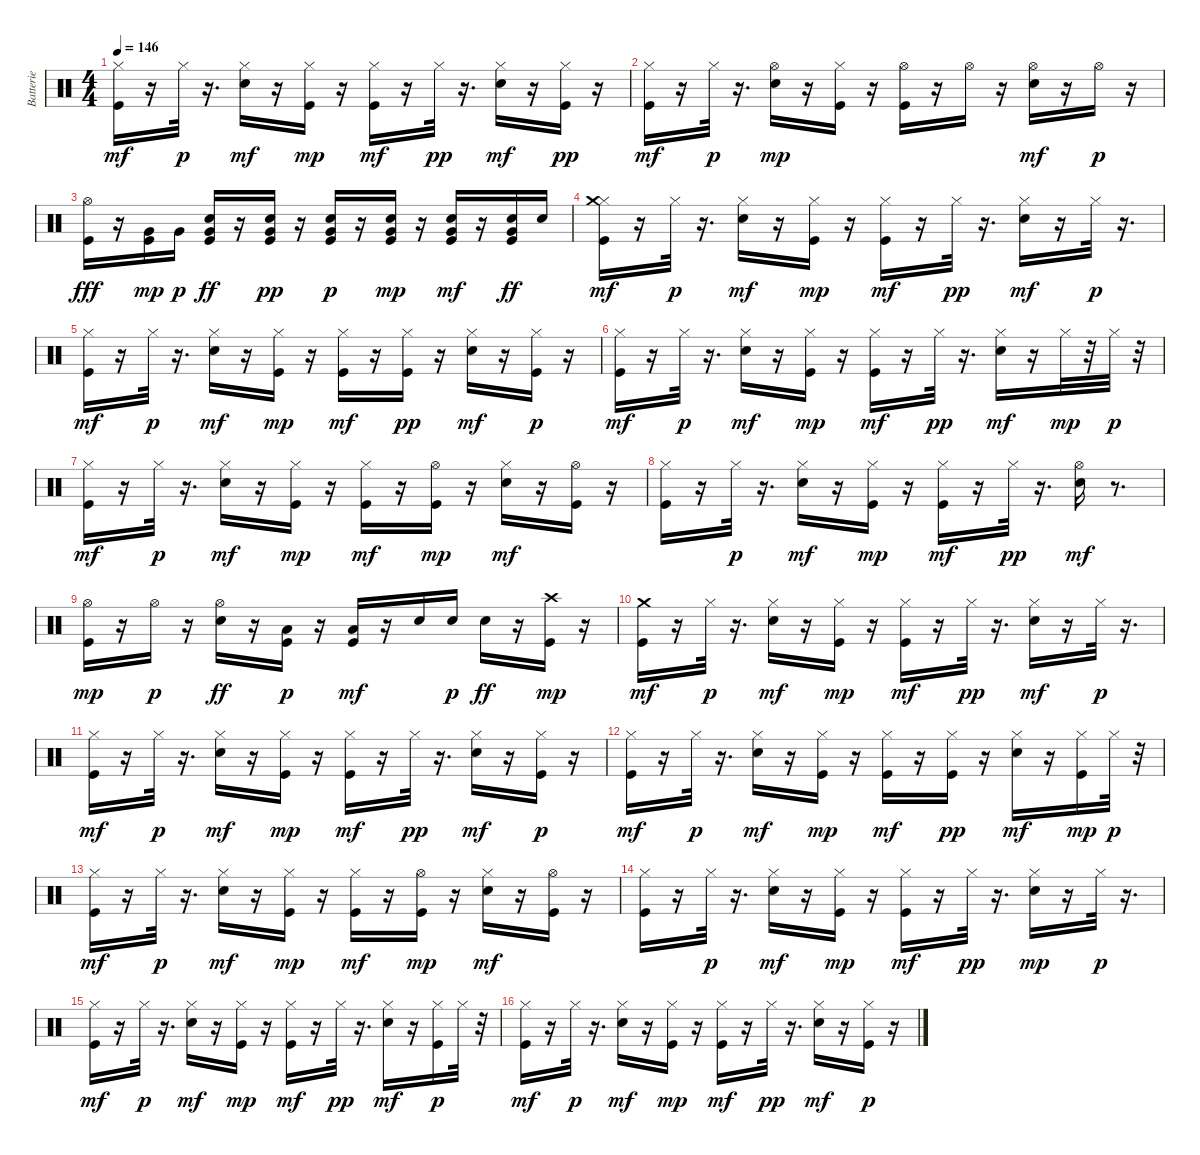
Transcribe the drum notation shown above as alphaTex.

\track ("Batterie" "Batterie") {instrument percussion}
\staff {score}
\articulation defaults
\ts (4 4)
\tempo 146
\clef neutral
\ks c
("Kick (hit)" "Hi-Hat (closed)").16{dy mf} r.16 "Hi-Hat (closed)".32{dy p} r.16{d} ("Electric Snare (hit)" "Hi-Hat (closed)").16{dy mf} r.16 ("Kick (hit)" "Hi-Hat (closed)").16{dy mp} r.16 ("Kick (hit)" "Hi-Hat (closed)").16{dy mf} r.16 "Hi-Hat (closed)".32{dy pp} r.16{d} ("Electric Snare (hit)" "Hi-Hat (closed)").16{dy mf} r.16 ("Kick (hit)" "Hi-Hat (closed)").16{dy pp} r.16 |
("Kick (hit)" "Hi-Hat (closed)").16{dy mf} r.16 "Hi-Hat (closed)".32{dy p} r.16{d} ("Electric Snare (hit)" "Hi-Hat (open)").16{dy mp} r.16 ("Kick (hit)" "Hi-Hat (closed)").16 r.16 ("Kick (hit)" "Hi-Hat (open)").16 r.16 "Hi-Hat (open)".16 r.16 ("Electric Snare (hit)" "Hi-Hat (open)").16{dy mf} r.16 "Hi-Hat (open)".16{dy p} r.16 |
("Kick (hit)" "Hi-Hat (open)").16{dy fff} r.16 ("Kick (hit)" "Very Low Tom (hit)").16{dy mp} "Very Low Tom (hit)".16{dy p} ("Kick (hit)" "Electric Snare (hit)" "Very Low Tom (hit)").16{dy ff} r.16 ("Kick (hit)" "Electric Snare (hit)" "Very Low Tom (hit)").16{dy pp} r.16 ("Kick (hit)" "Electric Snare (hit)" "Very Low Tom (hit)").16{dy p} r.16 ("Kick (hit)" "Electric Snare (hit)" "Very Low Tom (hit)").16{dy mp} r.16 ("Kick (hit)" "Electric Snare (hit)" "Very Low Tom (hit)").16{dy mf} r.16 ("Kick (hit)" "Electric Snare (hit)" "Very Low Tom (hit)").16{dy ff} "Electric Snare (hit)".16 |
("Kick (hit)" "Hi-Hat (closed)" "Crash medium (hit)").16{dy mf} r.16 "Hi-Hat (closed)".32{dy p} r.16{d} ("Electric Snare (hit)" "Hi-Hat (closed)").16{dy mf} r.16 ("Kick (hit)" "Hi-Hat (closed)").16{dy mp} r.16 ("Kick (hit)" "Hi-Hat (closed)").16{dy mf} r.16 "Hi-Hat (closed)".32{dy pp} r.16{d} ("Electric Snare (hit)" "Hi-Hat (closed)").16{dy mf} r.16 "Hi-Hat (closed)".32{dy p} r.16{d} |
("Kick (hit)" "Hi-Hat (closed)").16{dy mf} r.16 "Hi-Hat (closed)".32{dy p} r.16{d} ("Electric Snare (hit)" "Hi-Hat (closed)").16{dy mf} r.16 ("Kick (hit)" "Hi-Hat (closed)").16{dy mp} r.16 ("Kick (hit)" "Hi-Hat (closed)").16{dy mf} r.16 ("Kick (hit)" "Hi-Hat (closed)").16{dy pp} r.16 ("Electric Snare (hit)" "Hi-Hat (closed)").16{dy mf} r.16 ("Kick (hit)" "Hi-Hat (closed)").16{dy p} r.16 |
("Kick (hit)" "Hi-Hat (closed)").16{dy mf} r.16 "Hi-Hat (closed)".32{dy p} r.16{d} ("Electric Snare (hit)" "Hi-Hat (closed)").16{dy mf} r.16 ("Kick (hit)" "Hi-Hat (closed)").16{dy mp} r.16 ("Kick (hit)" "Hi-Hat (closed)").16{dy mf} r.16 "Hi-Hat (closed)".32{dy pp} r.16{d} ("Electric Snare (hit)" "Hi-Hat (closed)").16{dy mf} r.16 "Hi-Hat (closed)".32{dy mp} r.32 "Hi-Hat (closed)".32{dy p} r.32 |
("Kick (hit)" "Hi-Hat (closed)").16{dy mf} r.16 "Hi-Hat (closed)".32{dy p} r.16{d} ("Electric Snare (hit)" "Hi-Hat (closed)").16{dy mf} r.16 ("Kick (hit)" "Hi-Hat (closed)").16{dy mp} r.16 ("Kick (hit)" "Hi-Hat (closed)").16{dy mf} r.16 ("Kick (hit)" "Hi-Hat (open)").16{dy mp} r.16 ("Electric Snare (hit)" "Hi-Hat (closed)").16{dy mf} r.16 ("Kick (hit)" "Hi-Hat (open)").16 r.16 |
("Kick (hit)" "Hi-Hat (closed)").16 r.16 "Hi-Hat (closed)".32{dy p} r.16{d} ("Electric Snare (hit)" "Hi-Hat (closed)").16{dy mf} r.16 ("Kick (hit)" "Hi-Hat (closed)").16{dy mp} r.16 ("Kick (hit)" "Hi-Hat (closed)").16{dy mf} r.16 "Hi-Hat (closed)".32{dy pp} r.16{d} ("Electric Snare (hit)" "Hi-Hat (open)").16{dy mf} r.8{d} |
("Kick (hit)" "Hi-Hat (open)").16{dy mp} r.16 "Hi-Hat (open)".16{dy p} r.16 ("Electric Snare (hit)" "Hi-Hat (open)").16{dy ff} r.16 ("Kick (hit)" "Low Tom (hit)").16{dy p} r.16 ("Kick (hit)" "Low Tom (hit)").16{dy mf} r.16 "Electric Snare (hit)".16 "Electric Snare (hit)".16{dy p} "Electric Snare (hit)".16{dy ff} r.16 ("Crash high (hit)" "Kick (hit)").16{dy mp} r.16 |
("Kick (hit)" "Crash medium (hit)").16{dy mf} r.16 "Hi-Hat (closed)".32{dy p} r.16{d} ("Electric Snare (hit)" "Hi-Hat (closed)").16{dy mf} r.16 ("Kick (hit)" "Hi-Hat (closed)").16{dy mp} r.16 ("Kick (hit)" "Hi-Hat (closed)").16{dy mf} r.16 "Hi-Hat (closed)".32{dy pp} r.16{d} ("Electric Snare (hit)" "Hi-Hat (closed)").16{dy mf} r.16 "Hi-Hat (closed)".32{dy p} r.16{d} |
("Kick (hit)" "Hi-Hat (closed)").16{dy mf} r.16 "Hi-Hat (closed)".32{dy p} r.16{d} ("Electric Snare (hit)" "Hi-Hat (closed)").16{dy mf} r.16 ("Kick (hit)" "Hi-Hat (closed)").16{dy mp} r.16 ("Kick (hit)" "Hi-Hat (closed)").16{dy mf} r.16 "Hi-Hat (closed)".32{dy pp} r.16{d} ("Electric Snare (hit)" "Hi-Hat (closed)").16{dy mf} r.16 ("Kick (hit)" "Hi-Hat (closed)").16{dy p} r.16 |
("Kick (hit)" "Hi-Hat (closed)").16{dy mf} r.16 "Hi-Hat (closed)".32{dy p} r.16{d} ("Electric Snare (hit)" "Hi-Hat (closed)").16{dy mf} r.16 ("Kick (hit)" "Hi-Hat (closed)").16{dy mp} r.16 ("Kick (hit)" "Hi-Hat (closed)").16{dy mf} r.16 ("Kick (hit)" "Hi-Hat (closed)").16{dy pp} r.16 ("Electric Snare (hit)" "Hi-Hat (closed)").16{dy mf} r.16 ("Kick (hit)" "Hi-Hat (closed)").16{dy mp} "Hi-Hat (closed)".32{dy p} r.32 |
("Kick (hit)" "Hi-Hat (closed)").16{dy mf} r.16 "Hi-Hat (closed)".32{dy p} r.16{d} ("Electric Snare (hit)" "Hi-Hat (closed)").16{dy mf} r.16 ("Kick (hit)" "Hi-Hat (closed)").16{dy mp} r.16 ("Kick (hit)" "Hi-Hat (closed)").16{dy mf} r.16 ("Kick (hit)" "Hi-Hat (open)").16{dy mp} r.16 ("Electric Snare (hit)" "Hi-Hat (closed)").16{dy mf} r.16 ("Kick (hit)" "Hi-Hat (open)").16 r.16 |
("Kick (hit)" "Hi-Hat (closed)").16 r.16 "Hi-Hat (closed)".32{dy p} r.16{d} ("Electric Snare (hit)" "Hi-Hat (closed)").16{dy mf} r.16 ("Kick (hit)" "Hi-Hat (closed)").16{dy mp} r.16 ("Kick (hit)" "Hi-Hat (closed)").16{dy mf} r.16 "Hi-Hat (closed)".32{dy pp} r.16{d} ("Electric Snare (hit)" "Hi-Hat (closed)").16{dy mp} r.16 "Hi-Hat (closed)".32{dy p} r.16{d} |
("Kick (hit)" "Hi-Hat (closed)").16{dy mf} r.16 "Hi-Hat (closed)".32{dy p} r.16{d} ("Electric Snare (hit)" "Hi-Hat (closed)").16{dy mf} r.16 ("Kick (hit)" "Hi-Hat (closed)").16{dy mp} r.16 ("Kick (hit)" "Hi-Hat (closed)").16{dy mf} r.16 "Hi-Hat (closed)".32{dy pp} r.16{d} ("Electric Snare (hit)" "Hi-Hat (closed)").16{dy mf} r.16 ("Kick (hit)" "Hi-Hat (closed)").16{dy p} "Hi-Hat (closed)".32 r.32 |
("Kick (hit)" "Hi-Hat (closed)").16{dy mf} r.16 "Hi-Hat (closed)".32{dy p} r.16{d} ("Electric Snare (hit)" "Hi-Hat (closed)").16{dy mf} r.16 ("Kick (hit)" "Hi-Hat (closed)").16{dy mp} r.16 ("Kick (hit)" "Hi-Hat (closed)").16{dy mf} r.16 "Hi-Hat (closed)".32{dy pp} r.16{d} ("Electric Snare (hit)" "Hi-Hat (closed)").16{dy mf} r.16 ("Kick (hit)" "Hi-Hat (closed)").16{dy p} r.16
